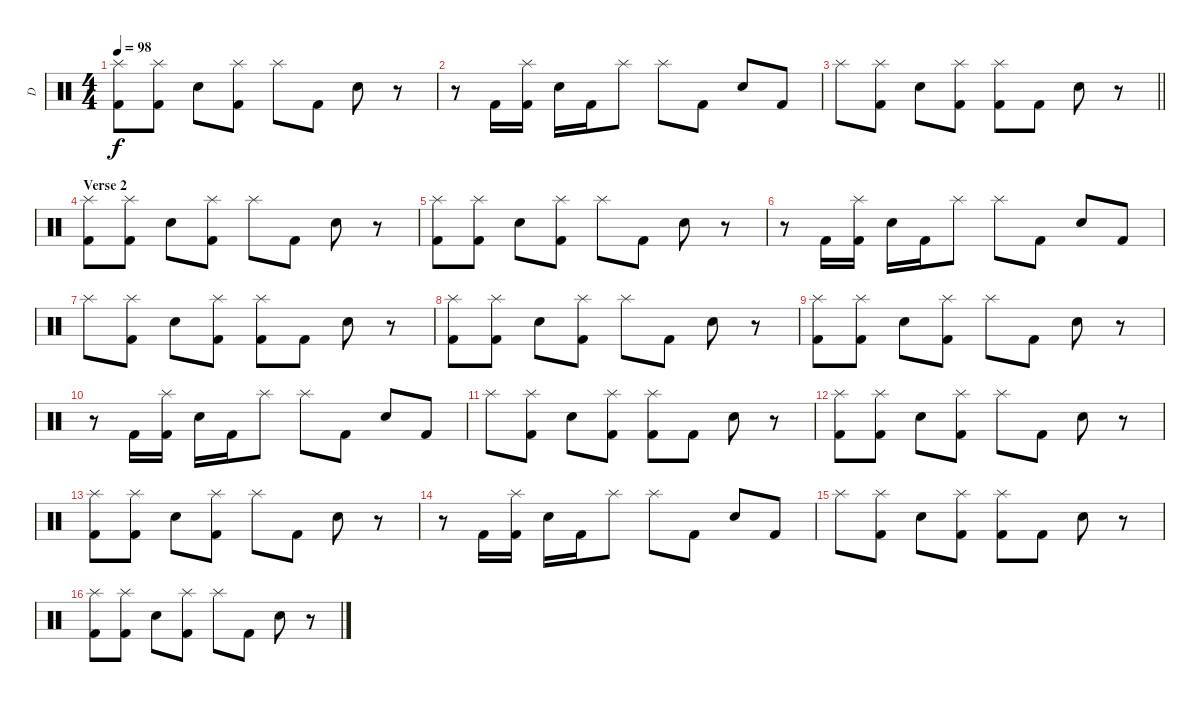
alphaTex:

\track ("D" "D") {instrument percussion}
\staff {score}
\articulation defaults
\ts (4 4)
\tempo 98
\clef neutral
\ks c
("Kick (hit) 2" "Splash (hit)").8{dy f} ("Kick (hit) 2" "Splash (hit)").8 "Electric Snare (hit)".8 ("Kick (hit) 2" "Splash (hit)").8 "Splash (hit)".8 "Kick (hit) 2".8 "Electric Snare (hit)".8 r.8 |
r.8 "Kick (hit) 2".16 ("Kick (hit) 2" "Splash (hit)").16 "Electric Snare (hit)".16 "Kick (hit) 2".16 "Splash (hit)".8 "Splash (hit)".8 "Kick (hit) 2".8 "Electric Snare (hit)".8 "Kick (hit) 2".8 |
\barLineRight lightlight "Splash (hit)".8
("Kick (hit) 2" "Splash (hit)").8 "Electric Snare (hit)".8 ("Kick (hit) 2" "Splash (hit)").8 ("Kick (hit) 2" "Splash (hit)").8 "Kick (hit) 2".8 "Electric Snare (hit)".8 r.8 |
\section ("" "Verse 2")
("Kick (hit) 2" "Splash (hit)").8 ("Kick (hit) 2" "Splash (hit)").8 "Electric Snare (hit)".8 ("Kick (hit) 2" "Splash (hit)").8 "Splash (hit)".8 "Kick (hit) 2".8 "Electric Snare (hit)".8 r.8 |
("Kick (hit) 2" "Splash (hit)").8 ("Kick (hit) 2" "Splash (hit)").8 "Electric Snare (hit)".8 ("Kick (hit) 2" "Splash (hit)").8 "Splash (hit)".8 "Kick (hit) 2".8 "Electric Snare (hit)".8 r.8 |
r.8 "Kick (hit) 2".16 ("Kick (hit) 2" "Splash (hit)").16 "Electric Snare (hit)".16 "Kick (hit) 2".16 "Splash (hit)".8 "Splash (hit)".8 "Kick (hit) 2".8 "Electric Snare (hit)".8 "Kick (hit) 2".8 |
"Splash (hit)".8 ("Kick (hit) 2" "Splash (hit)").8 "Electric Snare (hit)".8 ("Kick (hit) 2" "Splash (hit)").8 ("Kick (hit) 2" "Splash (hit)").8 "Kick (hit) 2".8 "Electric Snare (hit)".8 r.8 |
("Kick (hit) 2" "Splash (hit)").8 ("Kick (hit) 2" "Splash (hit)").8 "Electric Snare (hit)".8 ("Kick (hit) 2" "Splash (hit)").8 "Splash (hit)".8 "Kick (hit) 2".8 "Electric Snare (hit)".8 r.8 |
("Kick (hit) 2" "Splash (hit)").8 ("Kick (hit) 2" "Splash (hit)").8 "Electric Snare (hit)".8 ("Kick (hit) 2" "Splash (hit)").8 "Splash (hit)".8 "Kick (hit) 2".8 "Electric Snare (hit)".8 r.8 |
r.8 "Kick (hit) 2".16 ("Kick (hit) 2" "Splash (hit)").16 "Electric Snare (hit)".16 "Kick (hit) 2".16 "Splash (hit)".8 "Splash (hit)".8 "Kick (hit) 2".8 "Electric Snare (hit)".8 "Kick (hit) 2".8 |
"Splash (hit)".8 ("Kick (hit) 2" "Splash (hit)").8 "Electric Snare (hit)".8 ("Kick (hit) 2" "Splash (hit)").8 ("Kick (hit) 2" "Splash (hit)").8 "Kick (hit) 2".8 "Electric Snare (hit)".8 r.8 |
("Kick (hit) 2" "Splash (hit)").8 ("Kick (hit) 2" "Splash (hit)").8 "Electric Snare (hit)".8 ("Kick (hit) 2" "Splash (hit)").8 "Splash (hit)".8 "Kick (hit) 2".8 "Electric Snare (hit)".8 r.8 |
("Kick (hit) 2" "Splash (hit)").8 ("Kick (hit) 2" "Splash (hit)").8 "Electric Snare (hit)".8 ("Kick (hit) 2" "Splash (hit)").8 "Splash (hit)".8 "Kick (hit) 2".8 "Electric Snare (hit)".8 r.8 |
r.8 "Kick (hit) 2".16 ("Kick (hit) 2" "Splash (hit)").16 "Electric Snare (hit)".16 "Kick (hit) 2".16 "Splash (hit)".8 "Splash (hit)".8 "Kick (hit) 2".8 "Electric Snare (hit)".8 "Kick (hit) 2".8 |
"Splash (hit)".8 ("Kick (hit) 2" "Splash (hit)").8 "Electric Snare (hit)".8 ("Kick (hit) 2" "Splash (hit)").8 ("Kick (hit) 2" "Splash (hit)").8 "Kick (hit) 2".8 "Electric Snare (hit)".8 r.8 |
("Kick (hit) 2" "Splash (hit)").8 ("Kick (hit) 2" "Splash (hit)").8 "Electric Snare (hit)".8 ("Kick (hit) 2" "Splash (hit)").8 "Splash (hit)".8 "Kick (hit) 2".8 "Electric Snare (hit)".8 r.8
